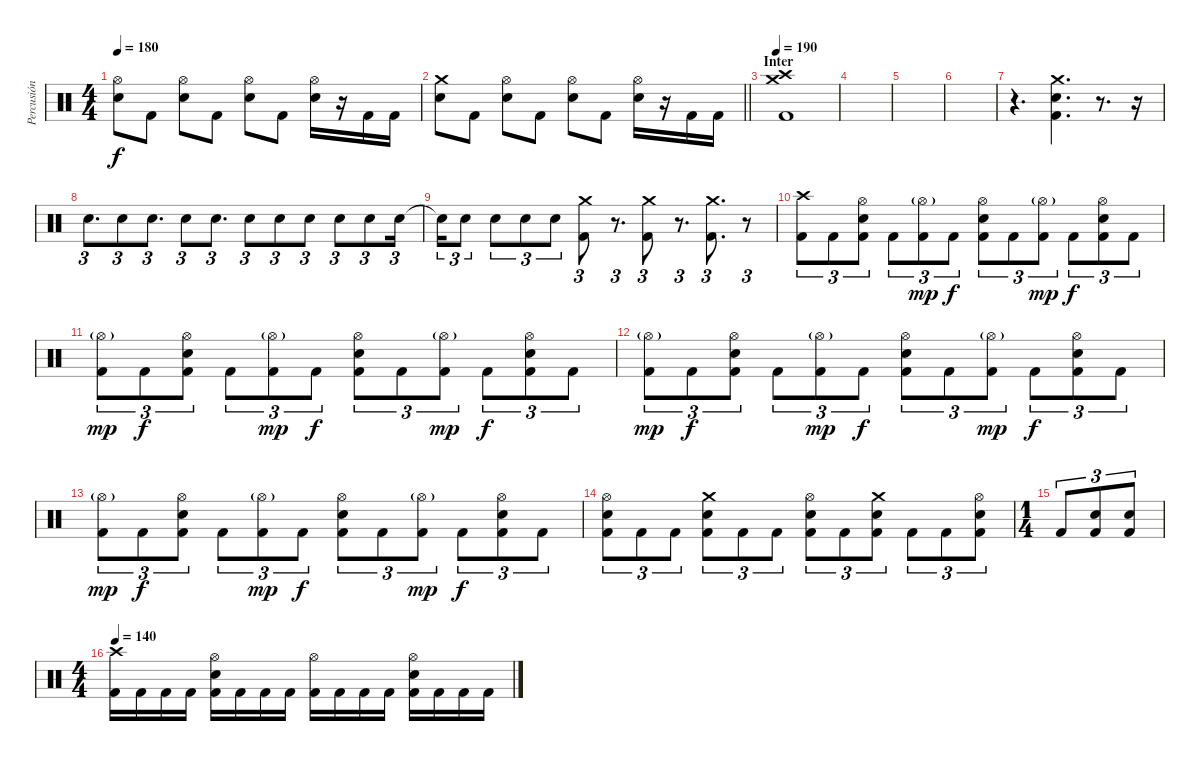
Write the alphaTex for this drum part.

\track ("Percusión" "Percusión") {instrument percussion}
\staff {score}
\articulation defaults
\ts (4 4)
\tempo 180
\clef neutral
\ks c
("Hi-Hat (open)" "Electric Snare (hit)").8{dy f} "Kick (hit) 2".8 ("Hi-Hat (open)" "Electric Snare (hit)").8 "Kick (hit) 2".8 ("Hi-Hat (open)" "Electric Snare (hit)").8 "Kick (hit) 2".8 ("Hi-Hat (open)" "Electric Snare (hit)").16 r.16 "Kick (hit) 2".16 "Kick (hit) 2".16 |
\barLineRight lightlight
("Crash medium (hit)" "Electric Snare (hit)").8 "Kick (hit) 2".8 ("Hi-Hat (open)" "Electric Snare (hit)").8 "Kick (hit) 2".8 ("Hi-Hat (open)" "Electric Snare (hit)").8 "Kick (hit) 2".8 ("Hi-Hat (open)" "Electric Snare (hit)").16 r.16 "Kick (hit) 2".16 "Kick (hit) 2".16 |
\section ("" "Inter")
\tempo 190
("Crash high (hit)" "Crash medium (hit)" "Kick (hit) 2").1 |
|
|
|
r.4{d} ("Crash medium (hit)" "Electric Snare (hit)" "Kick (hit) 2").4{d} r.8{d} r.16 |
"Snare (hit)".8{d tu (3 2)} "Snare (hit)".8{tu (3 2)} "Snare (hit)".8{d tu (3 2)} "Snare (hit)".8{tu (3 2)} "Snare (hit)".8{d tu (3 2)} "Electric Snare (hit)".8{tu (3 2)} "Electric Snare (hit)".8{tu (3 2)} "Electric Snare (hit)".8{tu (3 2)} "Electric Snare (hit)".8{tu (3 2)} "Electric Snare (hit)".8{tu (3 2)} "Electric Snare (hit)".16{tu (3 2)} |
"Snare (hit)"{t}.16{tu (3 2)} "Electric Snare (hit)".8{tu (3 2)} "Electric Snare (hit)".8{tu (3 2)} "Electric Snare (hit)".8{tu (3 2)} "Electric Snare (hit)".8{tu (3 2)} ("Crash medium (hit)" "Kick (hit) 2").8{tu (3 2)} r.8{d tu (3 2)} ("Crash medium (hit)" "Kick (hit) 2").8{tu (3 2)} r.8{d tu (3 2)} ("Crash medium (hit)" "Kick (hit) 2").8{d tu (3 2)} r.8{tu (3 2)} |
("Crash high (hit)" "Kick (hit) 2").8{tu (3 2)} "Kick (hit) 2".8{tu (3 2)} ("Hi-Hat (open)" "Electric Snare (hit)" "Kick (hit) 2").8{tu (3 2)} "Kick (hit) 2".8{tu (3 2)} ("Hi-Hat (open)"{g} "Kick (hit) 2").8{tu (3 2) dy mp} "Kick (hit) 2".8{tu (3 2) dy f} ("Hi-Hat (open)" "Electric Snare (hit)" "Kick (hit) 2").8{tu (3 2)} "Kick (hit) 2".8{tu (3 2)} ("Hi-Hat (open)"{g} "Kick (hit) 2").8{tu (3 2) dy mp} "Kick (hit) 2".8{tu (3 2) dy f} ("Hi-Hat (open)" "Electric Snare (hit)" "Kick (hit) 2").8{tu (3 2)} "Kick (hit) 2".8{tu (3 2)} |
("Hi-Hat (open)"{g} "Kick (hit) 2").8{tu (3 2) dy mp} "Kick (hit) 2".8{tu (3 2) dy f} ("Hi-Hat (open)" "Electric Snare (hit)" "Kick (hit) 2").8{tu (3 2)} "Kick (hit) 2".8{tu (3 2)} ("Hi-Hat (open)"{g} "Kick (hit) 2").8{tu (3 2) dy mp} "Kick (hit) 2".8{tu (3 2) dy f} ("Hi-Hat (open)" "Electric Snare (hit)" "Kick (hit) 2").8{tu (3 2)} "Kick (hit) 2".8{tu (3 2)} ("Hi-Hat (open)"{g} "Kick (hit) 2").8{tu (3 2) dy mp} "Kick (hit) 2".8{tu (3 2) dy f} ("Hi-Hat (open)" "Electric Snare (hit)" "Kick (hit) 2").8{tu (3 2)} "Kick (hit) 2".8{tu (3 2)} |
("Hi-Hat (open)"{g} "Kick (hit) 2").8{tu (3 2) dy mp} "Kick (hit) 2".8{tu (3 2) dy f} ("Hi-Hat (open)" "Electric Snare (hit)" "Kick (hit) 2").8{tu (3 2)} "Kick (hit) 2".8{tu (3 2)} ("Hi-Hat (open)"{g} "Kick (hit) 2").8{tu (3 2) dy mp} "Kick (hit) 2".8{tu (3 2) dy f} ("Hi-Hat (open)" "Electric Snare (hit)" "Kick (hit) 2").8{tu (3 2)} "Kick (hit) 2".8{tu (3 2)} ("Hi-Hat (open)"{g} "Kick (hit) 2").8{tu (3 2) dy mp} "Kick (hit) 2".8{tu (3 2) dy f} ("Hi-Hat (open)" "Electric Snare (hit)" "Kick (hit) 2").8{tu (3 2)} "Kick (hit) 2".8{tu (3 2)} |
("Hi-Hat (open)"{g} "Kick (hit) 2").8{tu (3 2) dy mp} "Kick (hit) 2".8{tu (3 2) dy f} ("Hi-Hat (open)" "Electric Snare (hit)" "Kick (hit) 2").8{tu (3 2)} "Kick (hit) 2".8{tu (3 2)} ("Hi-Hat (open)"{g} "Kick (hit) 2").8{tu (3 2) dy mp} "Kick (hit) 2".8{tu (3 2) dy f} ("Hi-Hat (open)" "Electric Snare (hit)" "Kick (hit) 2").8{tu (3 2)} "Kick (hit) 2".8{tu (3 2)} ("Hi-Hat (open)"{g} "Kick (hit) 2").8{tu (3 2) dy mp} "Kick (hit) 2".8{tu (3 2) dy f} ("Hi-Hat (open)" "Electric Snare (hit)" "Kick (hit) 2").8{tu (3 2)} "Kick (hit) 2".8{tu (3 2)} |
("Hi-Hat (open)" "Electric Snare (hit)" "Kick (hit) 2").8{tu (3 2)} "Kick (hit) 2".8{tu (3 2)} "Kick (hit) 2".8{tu (3 2)} ("Crash medium (hit)" "Electric Snare (hit)" "Kick (hit) 2").8{tu (3 2)} "Kick (hit) 2".8{tu (3 2)} "Kick (hit) 2".8{tu (3 2)} ("Hi-Hat (open)" "Electric Snare (hit)" "Kick (hit) 2").8{tu (3 2)} "Kick (hit) 2".8{tu (3 2)} ("Crash medium (hit)" "Electric Snare (hit)" "Kick (hit) 2").8{tu (3 2)} "Kick (hit) 2".8{tu (3 2)} "Kick (hit) 2".8{tu (3 2)} ("Hi-Hat (open)" "Electric Snare (hit)" "Kick (hit) 2").8{tu (3 2)} |
\ts (1 4)
"Kick (hit) 2".8{tu (3 2)} ("Electric Snare (hit)" "Kick (hit) 2").8{tu (3 2)} ("Electric Snare (hit)" "Kick (hit) 2").8{tu (3 2)} |
\ts (4 4)
\tempo 140
("Crash high (hit)" "Kick (hit) 2").16 "Kick (hit) 2".16 "Kick (hit) 2".16 "Kick (hit) 2".16 ("Hi-Hat (open)" "Electric Snare (hit)" "Kick (hit) 2").16 "Kick (hit) 2".16 "Kick (hit) 2".16 "Kick (hit) 2".16 ("Hi-Hat (open)" "Kick (hit) 2").16 "Kick (hit) 2".16 "Kick (hit) 2".16 "Kick (hit) 2".16 ("Hi-Hat (open)" "Electric Snare (hit)" "Kick (hit) 2").16 "Kick (hit) 2".16 "Kick (hit) 2".16 "Kick (hit) 2".16
